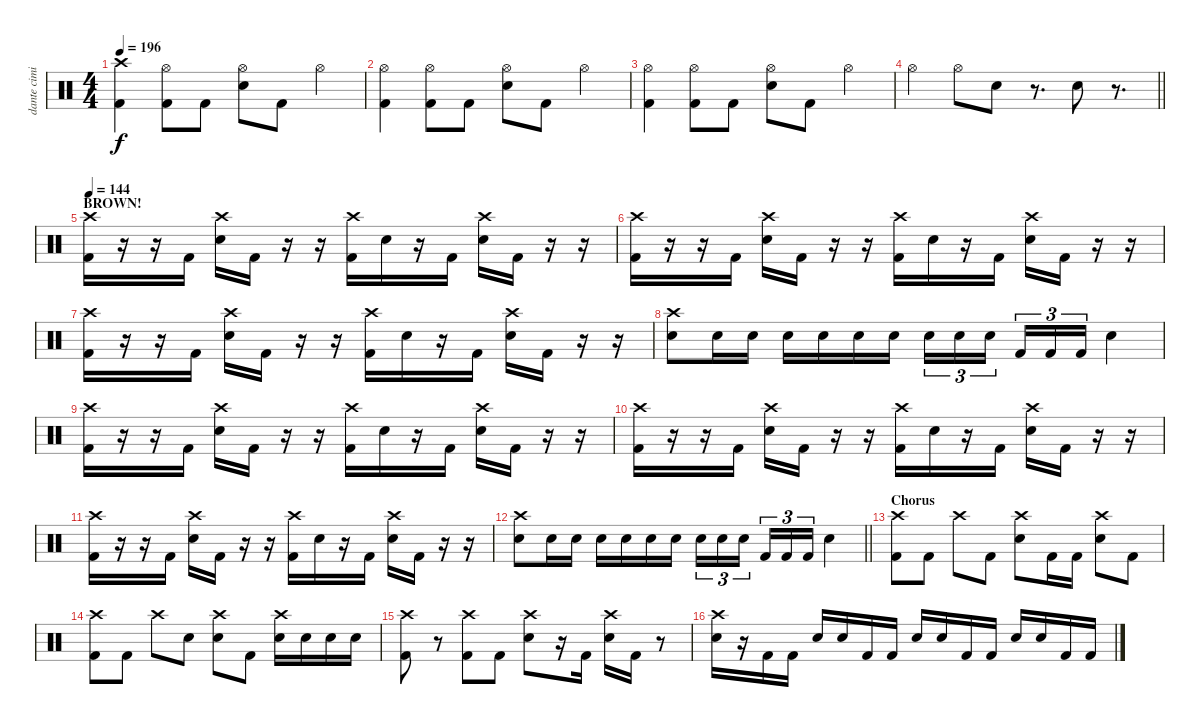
\track ("dante cimino" "dante cimi") {instrument percussion}
\staff {score}
\articulation defaults
\ts (4 4)
\tempo 196
\clef neutral
\ks c
("Crash high (hit)" "Kick (hit) 2").4{dy f} ("Hi-Hat (open)" "Kick (hit) 2").8 "Kick (hit) 2".8 ("Hi-Hat (open)" "Electric Snare (hit)").8 "Kick (hit) 2".8 "Hi-Hat (open)".4 |
("Hi-Hat (open)" "Kick (hit) 2").4 ("Hi-Hat (open)" "Kick (hit) 2").8 "Kick (hit) 2".8 ("Hi-Hat (open)" "Electric Snare (hit)").8 "Kick (hit) 2".8 "Hi-Hat (open)".4 |
("Hi-Hat (open)" "Kick (hit) 2").4 ("Hi-Hat (open)" "Kick (hit) 2").8 "Kick (hit) 2".8 ("Hi-Hat (open)" "Electric Snare (hit)").8 "Kick (hit) 2".8 "Hi-Hat (open)".4 |
\barLineRight lightlight "Hi-Hat (open)".4 "Hi-Hat (open)".8 "Electric Snare (hit)".8
r.8{d} "Electric Snare (hit)".8 r.8{d} |
\section ("" "BROWN!")
\tempo 144
("Crash high (hit)" "Kick (hit) 2").16 r.16 r.16 "Kick (hit) 2".16 ("Crash high (hit)" "Electric Snare (hit)").16 "Kick (hit) 2".16 r.16 r.16 ("Crash high (hit)" "Kick (hit) 2").16 "Electric Snare (hit)".16 r.16 "Kick (hit) 2".16 ("Crash high (hit)" "Electric Snare (hit)").16 "Kick (hit) 2".16 r.16 r.16 |
("Crash high (hit)" "Kick (hit) 2").16 r.16 r.16 "Kick (hit) 2".16 ("Crash high (hit)" "Electric Snare (hit)").16 "Kick (hit) 2".16 r.16 r.16 ("Crash high (hit)" "Kick (hit) 2").16 "Electric Snare (hit)".16 r.16 "Kick (hit) 2".16 ("Crash high (hit)" "Electric Snare (hit)").16 "Kick (hit) 2".16 r.16 r.16 |
("Crash high (hit)" "Kick (hit) 2").16 r.16 r.16 "Kick (hit) 2".16 ("Crash high (hit)" "Electric Snare (hit)").16 "Kick (hit) 2".16 r.16 r.16 ("Crash high (hit)" "Kick (hit) 2").16 "Electric Snare (hit)".16 r.16 "Kick (hit) 2".16 ("Crash high (hit)" "Electric Snare (hit)").16 "Kick (hit) 2".16 r.16 r.16 |
("Crash high (hit)" "Electric Snare (hit)").8 "Electric Snare (hit)".16 "Electric Snare (hit)".16 "Electric Snare (hit)".16 "Electric Snare (hit)".16 "Electric Snare (hit)".16 "Electric Snare (hit)".16 "Electric Snare (hit)".16{tu (3 2)} "Electric Snare (hit)".16{tu (3 2)} "Electric Snare (hit)".16{tu (3 2) beam splitsecondary} "Kick (hit) 2".16{tu (3 2)} "Kick (hit) 2".16{tu (3 2)} "Kick (hit) 2".16{tu (3 2)} "Electric Snare (hit)".4 |
("Crash high (hit)" "Kick (hit) 2").16 r.16 r.16 "Kick (hit) 2".16 ("Crash high (hit)" "Electric Snare (hit)").16 "Kick (hit) 2".16 r.16 r.16 ("Crash high (hit)" "Kick (hit) 2").16 "Electric Snare (hit)".16 r.16 "Kick (hit) 2".16 ("Crash high (hit)" "Electric Snare (hit)").16 "Kick (hit) 2".16 r.16 r.16 |
("Crash high (hit)" "Kick (hit) 2").16 r.16 r.16 "Kick (hit) 2".16 ("Crash high (hit)" "Electric Snare (hit)").16 "Kick (hit) 2".16 r.16 r.16 ("Crash high (hit)" "Kick (hit) 2").16 "Electric Snare (hit)".16 r.16 "Kick (hit) 2".16 ("Crash high (hit)" "Electric Snare (hit)").16 "Kick (hit) 2".16 r.16 r.16 |
("Crash high (hit)" "Kick (hit) 2").16 r.16 r.16 "Kick (hit) 2".16 ("Crash high (hit)" "Electric Snare (hit)").16 "Kick (hit) 2".16 r.16 r.16 ("Crash high (hit)" "Kick (hit) 2").16 "Electric Snare (hit)".16 r.16 "Kick (hit) 2".16 ("Crash high (hit)" "Electric Snare (hit)").16 "Kick (hit) 2".16 r.16 r.16 |
\barLineRight lightlight
("Crash high (hit)" "Electric Snare (hit)").8 "Electric Snare (hit)".16 "Electric Snare (hit)".16 "Electric Snare (hit)".16 "Electric Snare (hit)".16 "Electric Snare (hit)".16 "Electric Snare (hit)".16 "Electric Snare (hit)".16{tu (3 2)} "Electric Snare (hit)".16{tu (3 2)} "Electric Snare (hit)".16{tu (3 2) beam splitsecondary} "Kick (hit) 2".16{tu (3 2)} "Kick (hit) 2".16{tu (3 2)} "Kick (hit) 2".16{tu (3 2)} "Electric Snare (hit)".4 |
\section ("" "Chorus")
("Crash high (hit)" "Kick (hit) 2").8 "Kick (hit) 2".8 "Crash high (hit)".8 "Kick (hit) 2".8 ("Crash high (hit)" "Electric Snare (hit)").8 "Kick (hit) 2".16 "Kick (hit) 2".16 ("Crash high (hit)" "Electric Snare (hit)").8 "Kick (hit) 2".8 |
("Crash high (hit)" "Kick (hit) 2").8 "Kick (hit) 2".8 "Crash high (hit)".8 "Electric Snare (hit)".8 ("Crash high (hit)" "Electric Snare (hit)").8 "Kick (hit) 2".8 ("Crash high (hit)" "Electric Snare (hit)").16 "Electric Snare (hit)".16 "Electric Snare (hit)".16 "Electric Snare (hit)".16 |
("Crash high (hit)" "Kick (hit) 2").8 r.8 ("Crash high (hit)" "Kick (hit) 2").8 "Kick (hit) 2".8 ("Crash high (hit)" "Electric Snare (hit)").8 r.16 "Kick (hit) 2".16 ("Crash high (hit)" "Electric Snare (hit)").16 "Kick (hit) 2".16 r.8 |
("Crash high (hit)" "Electric Snare (hit)").16 r.16 "Kick (hit) 2".16 "Kick (hit) 2".16 "Electric Snare (hit)".16 "Electric Snare (hit)".16 "Kick (hit) 2".16 "Kick (hit) 2".16 "Electric Snare (hit)".16 "Electric Snare (hit)".16 "Kick (hit) 2".16 "Kick (hit) 2".16 "Electric Snare (hit)".16 "Electric Snare (hit)".16 "Kick (hit) 2".16 "Kick (hit) 2".16
